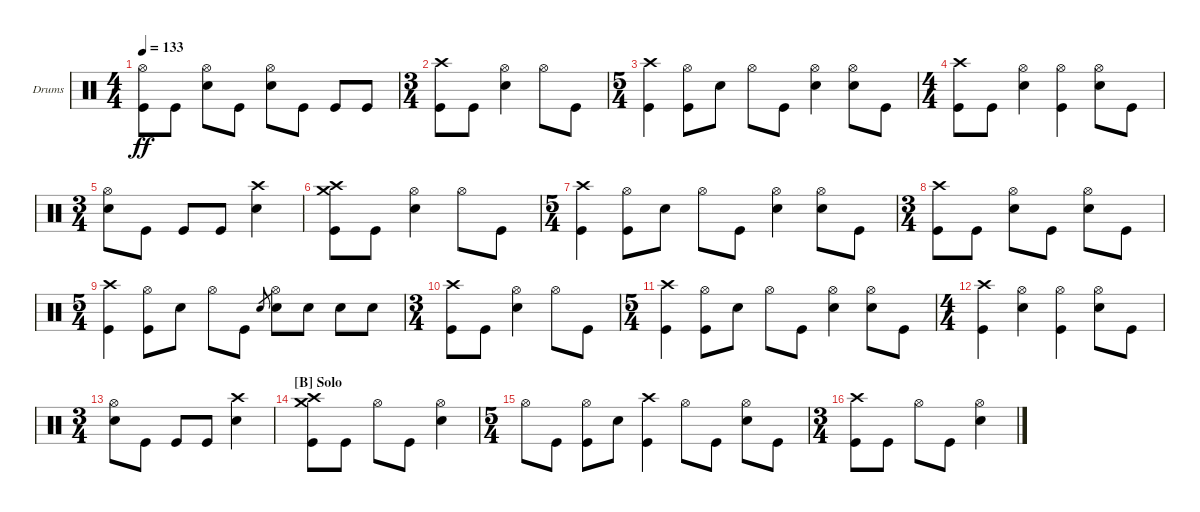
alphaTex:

\bracketExtendMode groupsimilarinstruments
\firstSystemTrackNameOrientation horizontal
\otherSystemsTrackNameOrientation horizontal
\track ("Drumkit" "Drums") {instrument percussion}
\staff {score}
\articulation defaults
\ts (4 4)
\tempo 133
\clef neutral
\ks c
("Hi-Hat (open)" "Kick (hit)").8{dy ff} "Kick (hit)".8 ("Hi-Hat (open)" "Snare (hit) 2").8 "Kick (hit)".8 ("Hi-Hat (open)" "Snare (hit) 2").8 "Kick (hit)".8 "Kick (hit)".8 "Kick (hit)".8 |
\ts (3 4)
("Crash high (hit)" "Kick (hit)").8 "Kick (hit)".8 ("Hi-Hat (open)" "Snare (hit) 2").4 "Hi-Hat (open)".8 "Kick (hit)".8 |
\ts (5 4)
("Crash high (hit)" "Kick (hit)").4 ("Hi-Hat (open)" "Kick (hit)").8 "Snare (hit) 2".8 "Hi-Hat (open)".8 "Kick (hit)".8 ("Hi-Hat (open)" "Snare (hit) 2").4 ("Hi-Hat (open)" "Snare (hit) 2").8 "Kick (hit)".8 |
\ts (4 4)
("Crash high (hit)" "Kick (hit)").8 "Kick (hit)".8 ("Hi-Hat (open)" "Snare (hit) 2").4 ("Hi-Hat (open)" "Kick (hit)").4 ("Hi-Hat (open)" "Snare (hit) 2").8 "Kick (hit)".8 |
\ts (3 4)
("Hi-Hat (open)" "Snare (hit) 2").8 "Kick (hit)".8 "Kick (hit)".8 "Kick (hit)".8 ("Crash high (hit)" "Snare (hit) 2").4 |
("Kick (hit)" "Crash medium (hit)" "Crash high (hit)").8 "Kick (hit)".8 ("Hi-Hat (open)" "Snare (hit) 2").4 "Hi-Hat (open)".8 "Kick (hit)".8 |
\ts (5 4)
("Crash high (hit)" "Kick (hit)").4 ("Hi-Hat (open)" "Kick (hit)").8 "Snare (hit) 2".8 "Hi-Hat (open)".8 "Kick (hit)".8 ("Hi-Hat (open)" "Snare (hit) 2").4 ("Hi-Hat (open)" "Snare (hit) 2").8 "Kick (hit)".8 |
\ts (3 4)
("Crash high (hit)" "Kick (hit)").8 "Kick (hit)".8 ("Hi-Hat (open)" "Snare (hit) 2").8 "Kick (hit)".8 ("Hi-Hat (open)" "Snare (hit) 2").8 "Kick (hit)".8 |
\ts (5 4)
("Kick (hit)" "Crash high (hit)").4 ("Hi-Hat (open)" "Kick (hit)").8 "Snare (hit) 2".8 "Hi-Hat (open)".8 "Kick (hit)".8 "Snare (hit) 2".8{gr} ("Hi-Hat (open)" "Snare (hit) 2").8 "Snare (hit) 2".8 "Snare (hit) 2".8 "Snare (hit) 2".8 |
\ts (3 4)
("Crash high (hit)" "Kick (hit)").8 "Kick (hit)".8 ("Hi-Hat (open)" "Snare (hit) 2").4 "Hi-Hat (open)".8 "Kick (hit)".8 |
\ts (5 4)
("Crash high (hit)" "Kick (hit)").4 ("Hi-Hat (open)" "Kick (hit)").8 "Snare (hit) 2".8 "Hi-Hat (open)".8 "Kick (hit)".8 ("Hi-Hat (open)" "Snare (hit) 2").4 ("Hi-Hat (open)" "Snare (hit) 2").8 "Kick (hit)".8 |
\ts (4 4)
("Crash high (hit)" "Kick (hit)").4 ("Hi-Hat (open)" "Snare (hit) 2").4 ("Hi-Hat (open)" "Kick (hit)").4 ("Hi-Hat (open)" "Snare (hit) 2").8 "Kick (hit)".8 |
\ts (3 4)
("Hi-Hat (open)" "Snare (hit) 2").8 "Kick (hit)".8 "Kick (hit)".8 "Kick (hit)".8 ("Snare (hit) 2" "Crash high (hit)").4 |
\section ("B" "Solo")
("Kick (hit)" "Crash high (hit)" "Crash medium (hit)").8 "Kick (hit)".8 "Hi-Hat (open)".8 "Kick (hit)".8 ("Hi-Hat (open)" "Snare (hit) 2").4 |
\ts (5 4)
"Hi-Hat (open)".8 "Kick (hit)".8 ("Kick (hit)" "Hi-Hat (open)").8 "Snare (hit) 2".8 ("Crash high (hit)" "Kick (hit)").4 "Hi-Hat (open)".8 "Kick (hit)".8 ("Snare (hit) 2" "Hi-Hat (open)").8 "Kick (hit)".8 |
\ts (3 4)
("Kick (hit)" "Crash high (hit)").8 "Kick (hit)".8 "Hi-Hat (open)".8 "Kick (hit)".8 ("Snare (hit) 2" "Hi-Hat (open)").4
